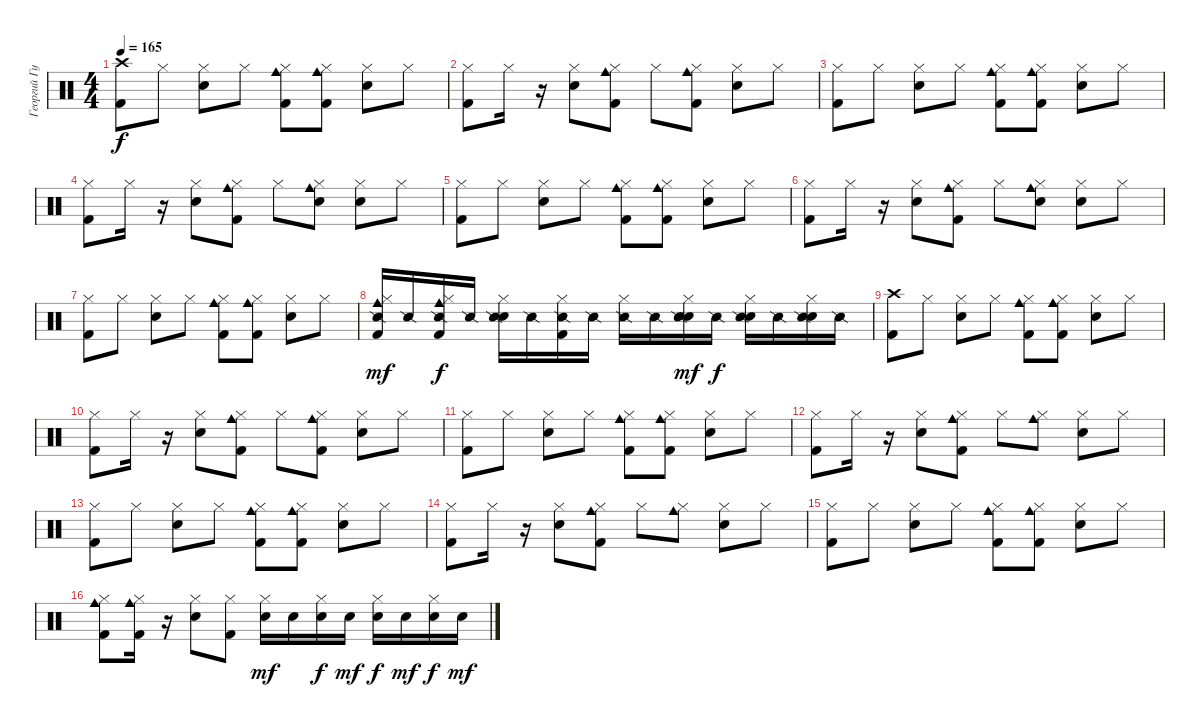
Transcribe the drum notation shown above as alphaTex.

\track ("Георгий Гурьянов" "Георгий Гу") {instrument percussion}
\staff {score}
\articulation defaults
\ts (4 4)
\tempo 165
\clef neutral
\ks c
("Crash high (hit)" "Kick (hit) 2").8{dy f} "Hi-Hat (closed)".8 ("Hi-Hat (closed)" "Snare (hit) 2").8 "Hi-Hat (closed)".8 ("Hi-Hat (closed)" "Cowbell medium (hit)" "Kick (hit) 2").8 ("Hi-Hat (closed)" "Cowbell medium (hit)" "Kick (hit) 2").8 ("Hi-Hat (closed)" "Snare (hit) 2").8 "Hi-Hat (closed)".8 |
("Hi-Hat (closed)" "Kick (hit) 2").8 "Hi-Hat (closed)".16 r.16 ("Hi-Hat (closed)" "Snare (hit) 2").8 ("Hi-Hat (closed)" "Kick (hit) 2" "Cowbell medium (hit)").8 "Hi-Hat (closed)".8 ("Hi-Hat (closed)" "Kick (hit) 2" "Cowbell medium (hit)").8 ("Hi-Hat (closed)" "Snare (hit) 2").8 "Hi-Hat (closed)".8 |
("Hi-Hat (closed)" "Kick (hit) 2").8 "Hi-Hat (closed)".8 ("Hi-Hat (closed)" "Snare (hit) 2").8 "Hi-Hat (closed)".8 ("Hi-Hat (closed)" "Cowbell medium (hit)" "Kick (hit) 2").8 ("Hi-Hat (closed)" "Cowbell medium (hit)" "Kick (hit) 2").8 ("Hi-Hat (closed)" "Snare (hit) 2").8 "Hi-Hat (closed)".8 |
("Hi-Hat (closed)" "Kick (hit) 2").8 "Hi-Hat (closed)".16 r.16 ("Hi-Hat (closed)" "Snare (hit) 2").8 ("Hi-Hat (closed)" "Kick (hit) 2" "Cowbell medium (hit)").8 "Hi-Hat (closed)".8 ("Hi-Hat (closed)" "Hand Clap (hit)" "Cowbell medium (hit)").8 ("Hi-Hat (closed)" "Snare (hit) 2").8 "Hi-Hat (closed)".8 |
("Hi-Hat (closed)" "Kick (hit) 2").8 "Hi-Hat (closed)".8 ("Hi-Hat (closed)" "Snare (hit) 2").8 "Hi-Hat (closed)".8 ("Hi-Hat (closed)" "Cowbell medium (hit)" "Kick (hit) 2").8 ("Hi-Hat (closed)" "Cowbell medium (hit)" "Kick (hit) 2").8 ("Hi-Hat (closed)" "Snare (hit) 2").8 "Hi-Hat (closed)".8 |
("Hi-Hat (closed)" "Kick (hit) 2").8 "Hi-Hat (closed)".16 r.16 ("Hi-Hat (closed)" "Snare (hit) 2").8 ("Hi-Hat (closed)" "Kick (hit) 2" "Cowbell medium (hit)").8 "Hi-Hat (closed)".8 ("Hi-Hat (closed)" "Hand Clap (hit)" "Cowbell medium (hit)").8 ("Hi-Hat (closed)" "Snare (hit) 2").8 "Hi-Hat (closed)".8 |
("Hi-Hat (closed)" "Kick (hit) 2").8 "Hi-Hat (closed)".8 ("Hi-Hat (closed)" "Snare (hit) 2").8 "Hi-Hat (closed)".8 ("Hi-Hat (closed)" "Cowbell medium (hit)" "Kick (hit) 2").8 ("Hi-Hat (closed)" "Cowbell medium (hit)" "Kick (hit) 2").8 ("Hi-Hat (closed)" "Snare (hit) 2").8 "Hi-Hat (closed)".8 |
("Cowbell medium (hit)" "Hi-Hat (closed)" "Kick (hit) 2" "Snare (side stick) 2").16{dy mf} "Snare (side stick) 2".16 ("Cowbell medium (hit)" "Kick (hit) 2" "Hi-Hat (closed)" "Snare (side stick) 2").16{dy f} "Snare (side stick) 2".16 ("Hi-Hat (closed)" "Snare (hit) 2" "Snare (side stick) 2").16 "Snare (side stick) 2".16 ("Hi-Hat (closed)" "Kick (hit) 2" "Snare (side stick) 2").16 "Snare (side stick) 2".16 ("Hi-Hat (closed)" "Snare (side stick) 2").16 "Snare (side stick) 2".16 ("Hi-Hat (closed)" "Snare (hit) 2" "Hand Clap (hit)" "Snare (side stick) 2").16{dy mf} "Snare (side stick) 2".16{dy f} ("Hi-Hat (closed)" "Snare (hit) 2" "Snare (side stick) 2").16 "Snare (side stick) 2".16 ("Snare (hit) 2" "Hi-Hat (closed)" "Snare (side stick) 2").16 "Snare (side stick) 2".16 |
("Crash high (hit)" "Kick (hit) 2").8 "Hi-Hat (closed)".8 ("Hi-Hat (closed)" "Snare (hit) 2").8 "Hi-Hat (closed)".8 ("Hi-Hat (closed)" "Cowbell medium (hit)" "Kick (hit) 2").8 ("Hi-Hat (closed)" "Cowbell medium (hit)" "Kick (hit) 2").8 ("Hi-Hat (closed)" "Snare (hit) 2").8 "Hi-Hat (closed)".8 |
("Hi-Hat (closed)" "Kick (hit) 2").8 "Hi-Hat (closed)".16 r.16 ("Hi-Hat (closed)" "Snare (hit) 2").8 ("Hi-Hat (closed)" "Kick (hit) 2" "Cowbell medium (hit)").8 "Hi-Hat (closed)".8 ("Hi-Hat (closed)" "Kick (hit) 2" "Cowbell medium (hit)").8 ("Hi-Hat (closed)" "Snare (hit) 2").8 "Hi-Hat (closed)".8 |
("Hi-Hat (closed)" "Kick (hit) 2").8 "Hi-Hat (closed)".8 ("Hi-Hat (closed)" "Snare (hit) 2").8 "Hi-Hat (closed)".8 ("Hi-Hat (closed)" "Cowbell medium (hit)" "Kick (hit) 2").8 ("Hi-Hat (closed)" "Cowbell medium (hit)" "Kick (hit) 2").8 ("Hi-Hat (closed)" "Snare (hit) 2").8 "Hi-Hat (closed)".8 |
("Hi-Hat (closed)" "Kick (hit) 2").8 "Hi-Hat (closed)".16 r.16 ("Hi-Hat (closed)" "Snare (hit) 2").8 ("Hi-Hat (closed)" "Kick (hit) 2" "Cowbell medium (hit)").8 "Hi-Hat (closed)".8 ("Hi-Hat (closed)" "Cowbell medium (hit)").8 ("Hi-Hat (closed)" "Snare (hit) 2").8 "Hi-Hat (closed)".8 |
("Hi-Hat (closed)" "Kick (hit) 2").8 "Hi-Hat (closed)".8 ("Hi-Hat (closed)" "Snare (hit) 2").8 "Hi-Hat (closed)".8 ("Hi-Hat (closed)" "Cowbell medium (hit)" "Kick (hit) 2").8 ("Hi-Hat (closed)" "Cowbell medium (hit)" "Kick (hit) 2").8 ("Hi-Hat (closed)" "Snare (hit) 2").8 "Hi-Hat (closed)".8 |
("Hi-Hat (closed)" "Kick (hit) 2").8 "Hi-Hat (closed)".16 r.16 ("Hi-Hat (closed)" "Snare (hit) 2").8 ("Hi-Hat (closed)" "Kick (hit) 2" "Cowbell medium (hit)").8 "Hi-Hat (closed)".8 ("Hi-Hat (closed)" "Cowbell medium (hit)").8 ("Hi-Hat (closed)" "Snare (hit) 2").8 "Hi-Hat (closed)".8 |
("Hi-Hat (closed)" "Kick (hit) 2").8 "Hi-Hat (closed)".8 ("Hi-Hat (closed)" "Snare (hit) 2").8 "Hi-Hat (closed)".8 ("Hi-Hat (closed)" "Cowbell medium (hit)" "Kick (hit) 2").8 ("Hi-Hat (closed)" "Cowbell medium (hit)" "Kick (hit) 2").8 ("Hi-Hat (closed)" "Snare (hit) 2").8 "Hi-Hat (closed)".8 |
("Cowbell medium (hit)" "Hi-Hat (closed)" "Kick (hit) 2").8 ("Cowbell medium (hit)" "Kick (hit) 2" "Hi-Hat (closed)").16 r.16 ("Hi-Hat (closed)" "Snare (hit) 2").8 ("Hi-Hat (closed)" "Kick (hit) 2").8 ("Snare (hit) 2" "Hi-Hat (closed)").16{dy mf} "Snare (hit) 2".16 ("Hi-Hat (closed)" "Snare (hit) 2").16{dy f} "Snare (hit) 2".16{dy mf} ("Hi-Hat (closed)" "Snare (hit) 2").16{dy f} "Snare (hit) 2".16{dy mf} ("Snare (hit) 2" "Hi-Hat (closed)").16{dy f} "Snare (hit) 2".16{dy mf}
